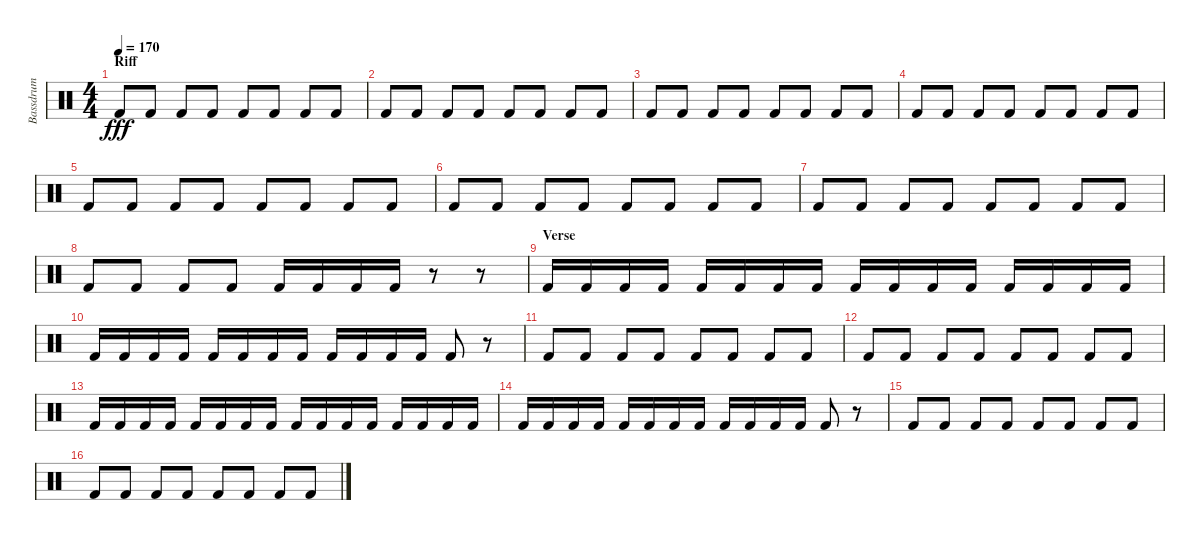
\track ("Bassdrum" "Bassdrum") {instrument percussion}
\staff {score}
\articulation defaults
\ts (4 4)
\section ("" "Riff")
\tempo 170
\clef neutral
\ks c "Kick (hit) 2".8{dy fff} "Kick (hit) 2".8 "Kick (hit) 2".8 "Kick (hit) 2".8 "Kick (hit) 2".8 "Kick (hit) 2".8 "Kick (hit) 2".8 "Kick (hit) 2".8
|
"Kick (hit) 2".8 "Kick (hit) 2".8 "Kick (hit) 2".8 "Kick (hit) 2".8 "Kick (hit) 2".8 "Kick (hit) 2".8 "Kick (hit) 2".8 "Kick (hit) 2".8 |
"Kick (hit) 2".8 "Kick (hit) 2".8 "Kick (hit) 2".8 "Kick (hit) 2".8 "Kick (hit) 2".8 "Kick (hit) 2".8 "Kick (hit) 2".8 "Kick (hit) 2".8 |
"Kick (hit) 2".8 "Kick (hit) 2".8 "Kick (hit) 2".8 "Kick (hit) 2".8 "Kick (hit) 2".8 "Kick (hit) 2".8 "Kick (hit) 2".8 "Kick (hit) 2".8 |
"Kick (hit) 2".8 "Kick (hit) 2".8 "Kick (hit) 2".8 "Kick (hit) 2".8 "Kick (hit) 2".8 "Kick (hit) 2".8 "Kick (hit) 2".8 "Kick (hit) 2".8 |
"Kick (hit) 2".8 "Kick (hit) 2".8 "Kick (hit) 2".8 "Kick (hit) 2".8 "Kick (hit) 2".8 "Kick (hit) 2".8 "Kick (hit) 2".8 "Kick (hit) 2".8 |
"Kick (hit) 2".8 "Kick (hit) 2".8 "Kick (hit) 2".8 "Kick (hit) 2".8 "Kick (hit) 2".8 "Kick (hit) 2".8 "Kick (hit) 2".8 "Kick (hit) 2".8 |
"Kick (hit) 2".8 "Kick (hit) 2".8 "Kick (hit) 2".8 "Kick (hit) 2".8 "Kick (hit) 2".16 "Kick (hit) 2".16 "Kick (hit) 2".16 "Kick (hit) 2".16 r.8 r.8 |
\section ("" "Verse")
"Kick (hit) 2".16 "Kick (hit) 2".16 "Kick (hit) 2".16 "Kick (hit) 2".16 "Kick (hit) 2".16 "Kick (hit) 2".16 "Kick (hit) 2".16 "Kick (hit) 2".16 "Kick (hit) 2".16 "Kick (hit) 2".16 "Kick (hit) 2".16 "Kick (hit) 2".16 "Kick (hit) 2".16 "Kick (hit) 2".16 "Kick (hit) 2".16 "Kick (hit) 2".16 |
"Kick (hit) 2".16 "Kick (hit) 2".16 "Kick (hit) 2".16 "Kick (hit) 2".16 "Kick (hit) 2".16 "Kick (hit) 2".16 "Kick (hit) 2".16 "Kick (hit) 2".16 "Kick (hit) 2".16 "Kick (hit) 2".16 "Kick (hit) 2".16 "Kick (hit) 2".16 "Kick (hit) 2".8 r.8 |
"Kick (hit) 2".8 "Kick (hit) 2".8 "Kick (hit) 2".8 "Kick (hit) 2".8 "Kick (hit) 2".8 "Kick (hit) 2".8 "Kick (hit) 2".8 "Kick (hit) 2".8 |
"Kick (hit) 2".8 "Kick (hit) 2".8 "Kick (hit) 2".8 "Kick (hit) 2".8 "Kick (hit) 2".8 "Kick (hit) 2".8 "Kick (hit) 2".8 "Kick (hit) 2".8 |
"Kick (hit) 2".16 "Kick (hit) 2".16 "Kick (hit) 2".16 "Kick (hit) 2".16 "Kick (hit) 2".16 "Kick (hit) 2".16 "Kick (hit) 2".16 "Kick (hit) 2".16 "Kick (hit) 2".16 "Kick (hit) 2".16 "Kick (hit) 2".16 "Kick (hit) 2".16 "Kick (hit) 2".16 "Kick (hit) 2".16 "Kick (hit) 2".16 "Kick (hit) 2".16 |
"Kick (hit) 2".16 "Kick (hit) 2".16 "Kick (hit) 2".16 "Kick (hit) 2".16 "Kick (hit) 2".16 "Kick (hit) 2".16 "Kick (hit) 2".16 "Kick (hit) 2".16 "Kick (hit) 2".16 "Kick (hit) 2".16 "Kick (hit) 2".16 "Kick (hit) 2".16 "Kick (hit) 2".8 r.8 |
"Kick (hit) 2".8 "Kick (hit) 2".8 "Kick (hit) 2".8 "Kick (hit) 2".8 "Kick (hit) 2".8 "Kick (hit) 2".8 "Kick (hit) 2".8 "Kick (hit) 2".8 |
"Kick (hit) 2".8 "Kick (hit) 2".8 "Kick (hit) 2".8 "Kick (hit) 2".8 "Kick (hit) 2".8 "Kick (hit) 2".8 "Kick (hit) 2".8 "Kick (hit) 2".8
